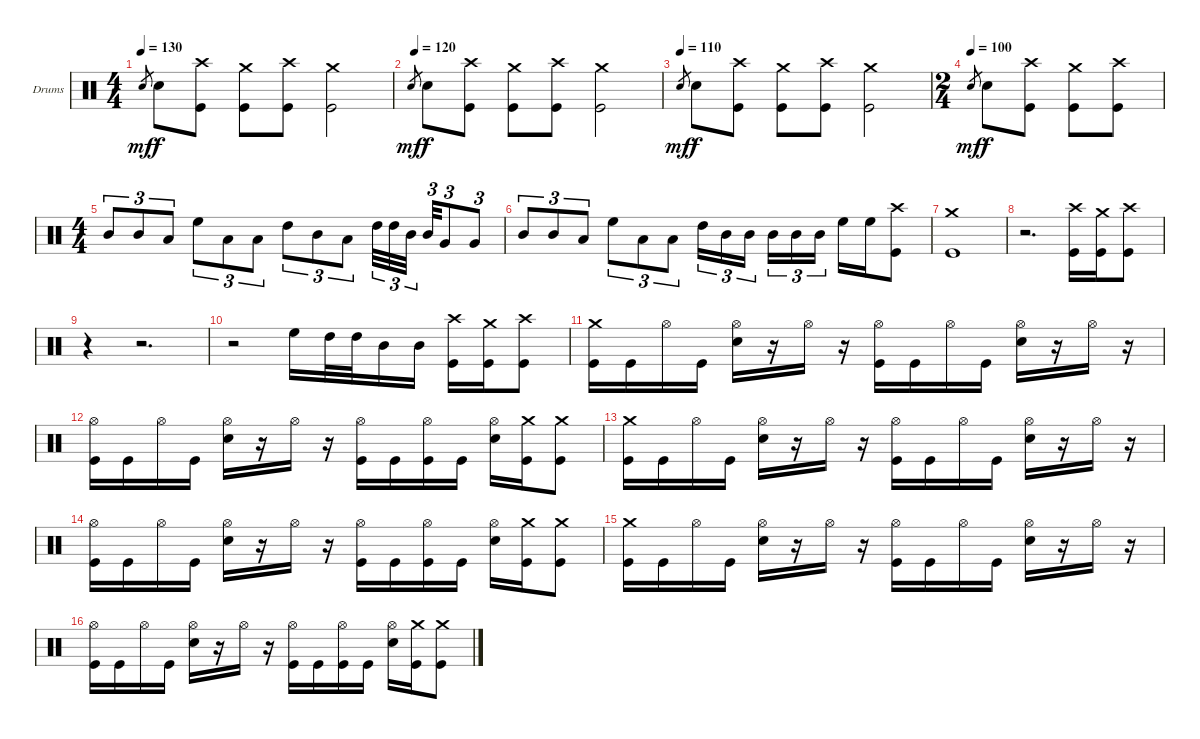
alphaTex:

\bracketExtendMode groupsimilarinstruments
\firstSystemTrackNameOrientation horizontal
\otherSystemsTrackNameOrientation horizontal
\track ("Nick Menza" "Drums") {instrument percussion}
\staff {score}
\articulation defaults
\ts (4 4)
\tempo 130
\clef neutral
\ks c "Snare (hit) 2".8{gr dy mf} "Snare (hit) 2".8{dy f}
("Crash high (hit)" "Kick (hit)").8 ("Crash medium (hit)" "Kick (hit)").8 ("Crash high (hit)" "Kick (hit)").8 ("Crash medium (hit)" "Kick (hit)").2 |
\tempo (120 0.01875)
"Snare (hit) 2".8{gr dy mf} "Snare (hit) 2".8{dy f} ("Crash high (hit)" "Kick (hit)").8 ("Crash medium (hit)" "Kick (hit)").8 ("Crash high (hit)" "Kick (hit)").8 ("Crash medium (hit)" "Kick (hit)").2 |
\tempo (110 0.00625)
"Snare (hit) 2".8{gr dy mf} "Snare (hit) 2".8{dy f} ("Crash high (hit)" "Kick (hit)").8 ("Crash medium (hit)" "Kick (hit)").8 ("Crash high (hit)" "Kick (hit)").8 ("Crash medium (hit)" "Kick (hit)").2 |
\ts (2 4)
\tempo (100 0.00625)
"Snare (hit) 2".8{gr dy mf} "Snare (hit) 2".8{dy f} ("Crash high (hit)" "Kick (hit)").8 ("Crash medium (hit)" "Kick (hit)").8 ("Crash high (hit)" "Kick (hit)").8 |
\ts (4 4)
"Mid Tom (hit)".8{tu (3 2)} "Mid Tom (hit)".8{tu (3 2)} "Low Tom (hit)".8{tu (3 2)} "High Floor Tom (hit)".8{tu (3 2)} "Low Tom (hit)".8{tu (3 2)} "Low Tom (hit)".8{tu (3 2)} "High Tom (hit)".8{tu (3 2)} "Mid Tom (hit)".8{tu (3 2)} "Low Tom (hit)".8{tu (3 2)} "High Tom (hit)".32{tu (3 2)} "High Tom (hit)".32{tu (3 2)} "Mid Tom (hit)".32{tu (3 2)} "Mid Tom (hit)".32{tu (3 2)} "Very Low Tom (hit)".8{tu (3 2)} "Very Low Tom (hit)".8{tu (3 2)} |
"Mid Tom (hit)".8{tu (3 2)} "Mid Tom (hit)".8{tu (3 2)} "Low Tom (hit)".8{tu (3 2)} "High Floor Tom (hit)".8{tu (3 2)} "Low Tom (hit)".8{tu (3 2)} "Low Tom (hit)".8{tu (3 2)} "High Tom (hit)".16{tu (3 2)} "Mid Tom (hit)".16{tu (3 2)} "Mid Tom (hit)".16{tu (3 2)} "Mid Tom (hit)".16{tu (3 2)} "Mid Tom (hit)".16{tu (3 2)} "Mid Tom (hit)".16{tu (3 2)} "High Floor Tom (hit)".16 "High Floor Tom (hit)".16 ("Crash high (hit)" "Kick (hit)").8 |
("Crash medium (hit)" "Kick (hit)").1 |
r.2{d} ("Crash high (hit)" "Kick (hit)").16 ("Crash medium (hit)" "Kick (hit)").16 ("Crash high (hit)" "Kick (hit)").8 |
r.4 r.2{d} |
r.2 "High Floor Tom (hit)".16 "High Tom (hit)".32 "High Tom (hit)".32 "Mid Tom (hit)".16 "Mid Tom (hit)".16 ("Crash high (hit)" "Kick (hit)").16 ("Crash medium (hit)" "Kick (hit)").16 ("Crash high (hit)" "Kick (hit)").8 |
("Crash medium (hit)" "Kick (hit)").16 "Kick (hit)".16 "Hi-Hat (open)".16 "Kick (hit)".16 ("Hi-Hat (open)" "Snare (hit) 2").16 r.16 "Hi-Hat (open)".16 r.16 ("Hi-Hat (open)" "Kick (hit)").16 "Kick (hit)".16 "Hi-Hat (open)".16 "Kick (hit)".16 ("Hi-Hat (open)" "Snare (hit) 2").16 r.16 "Hi-Hat (open)".16 r.16 |
("Hi-Hat (open)" "Kick (hit)").16 "Kick (hit)".16 "Hi-Hat (open)".16 "Kick (hit)".16 ("Hi-Hat (open)" "Snare (hit) 2").16 r.16 "Hi-Hat (open)".16 r.16 ("Hi-Hat (open)" "Kick (hit)").16 "Kick (hit)".16 ("Hi-Hat (open)" "Kick (hit)").16 "Kick (hit)".16 ("Hi-Hat (open)" "Snare (hit) 2").16 ("Crash medium (hit)" "Kick (hit)").16 ("Crash medium (hit)" "Kick (hit)").8 |
("Crash medium (hit)" "Kick (hit)").16 "Kick (hit)".16 "Hi-Hat (open)".16 "Kick (hit)".16 ("Hi-Hat (open)" "Snare (hit) 2").16 r.16 "Hi-Hat (open)".16 r.16 ("Hi-Hat (open)" "Kick (hit)").16 "Kick (hit)".16 "Hi-Hat (open)".16 "Kick (hit)".16 ("Hi-Hat (open)" "Snare (hit) 2").16 r.16 "Hi-Hat (open)".16 r.16 |
("Hi-Hat (open)" "Kick (hit)").16 "Kick (hit)".16 "Hi-Hat (open)".16 "Kick (hit)".16 ("Hi-Hat (open)" "Snare (hit) 2").16 r.16 "Hi-Hat (open)".16 r.16 ("Hi-Hat (open)" "Kick (hit)").16 "Kick (hit)".16 ("Hi-Hat (open)" "Kick (hit)").16 "Kick (hit)".16 ("Hi-Hat (open)" "Snare (hit) 2").16 ("Crash medium (hit)" "Kick (hit)").16 ("Crash medium (hit)" "Kick (hit)").8 |
("Crash medium (hit)" "Kick (hit)").16 "Kick (hit)".16 "Hi-Hat (open)".16 "Kick (hit)".16 ("Hi-Hat (open)" "Snare (hit) 2").16 r.16 "Hi-Hat (open)".16 r.16 ("Hi-Hat (open)" "Kick (hit)").16 "Kick (hit)".16 "Hi-Hat (open)".16 "Kick (hit)".16 ("Hi-Hat (open)" "Snare (hit) 2").16 r.16 "Hi-Hat (open)".16 r.16 |
("Hi-Hat (open)" "Kick (hit)").16 "Kick (hit)".16 "Hi-Hat (open)".16 "Kick (hit)".16 ("Hi-Hat (open)" "Snare (hit) 2").16 r.16 "Hi-Hat (open)".16 r.16 ("Hi-Hat (open)" "Kick (hit)").16 "Kick (hit)".16 ("Hi-Hat (open)" "Kick (hit)").16 "Kick (hit)".16 ("Hi-Hat (open)" "Snare (hit) 2").16 ("Crash medium (hit)" "Kick (hit)").16 ("Crash medium (hit)" "Kick (hit)").8
